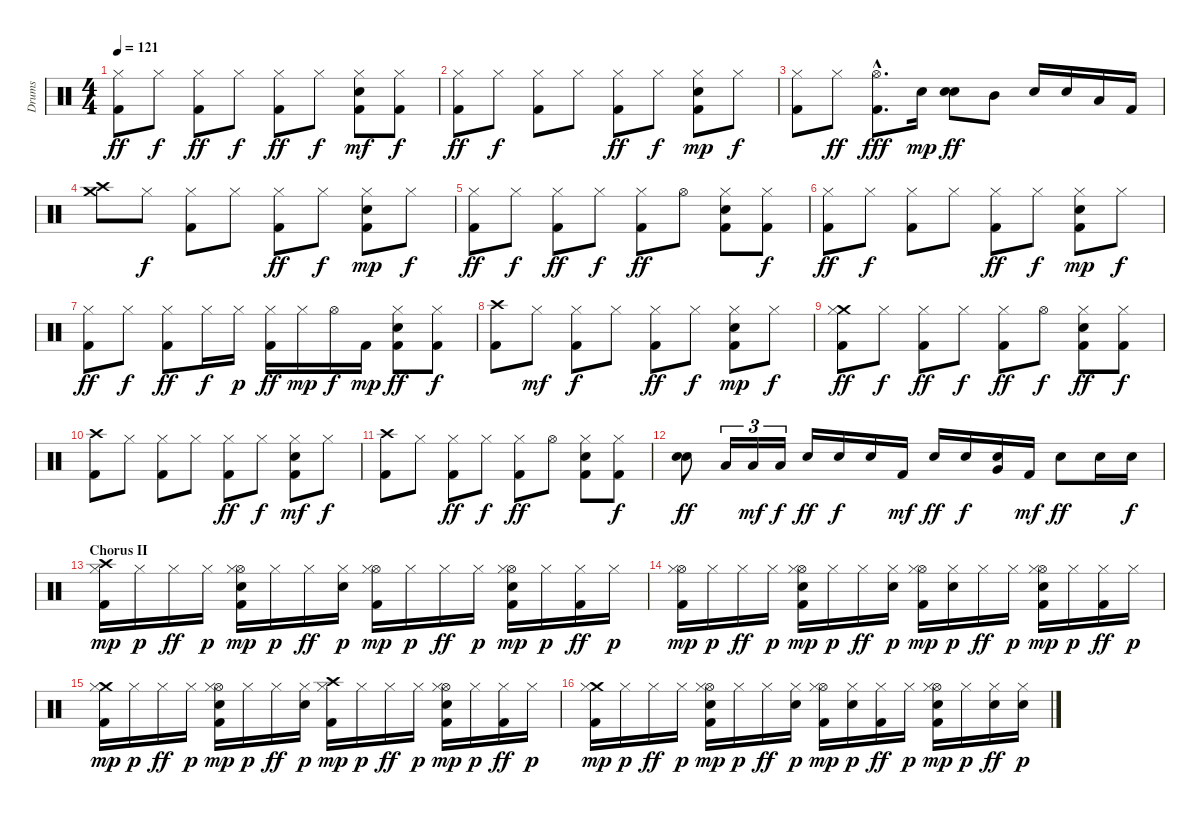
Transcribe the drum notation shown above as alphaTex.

\track ("Drums" "Drums") {instrument percussion}
\staff {score}
\articulation defaults
\ts (4 4)
\tempo 121
\clef neutral
\ks c
("Kick (hit) 2" "Hi-Hat (closed)").8{dy ff} "Hi-Hat (closed)".8{dy f} ("Kick (hit) 2" "Hi-Hat (closed)").8{dy ff} "Hi-Hat (closed)".8{dy f} ("Kick (hit) 2" "Hi-Hat (closed)").8{dy ff} "Hi-Hat (closed)".8{dy f} ("Kick (hit) 2" "Hi-Hat (closed)" "Electric Snare (hit)").8{dy mf} ("Kick (hit) 2" "Hi-Hat (closed)").8{dy f} |
("Kick (hit) 2" "Hi-Hat (closed)").8{dy ff} "Hi-Hat (closed)".8{dy f} ("Kick (hit) 2" "Hi-Hat (closed)").8 "Hi-Hat (closed)".8 ("Kick (hit) 2" "Hi-Hat (closed)").8{dy ff} "Hi-Hat (closed)".8{dy f} ("Kick (hit) 2" "Hi-Hat (closed)" "Electric Snare (hit)").8{dy mp} "Hi-Hat (closed)".8{dy f} |
("Kick (hit) 2" "Hi-Hat (closed)").8 "Hi-Hat (closed)".8{dy ff} ("Kick (hit) 2"{hac} "Hi-Hat (open)"{hac}).8{d dy fff} "Electric Snare (hit)".16{dy mp} ("Electric Snare (hit)" "Snare (hit) 2").8{dy ff} "Mid Tom (hit)".8 "Snare (hit) 2".16 "Electric Snare (hit)".16 "Low Tom (hit)".16 "Kick (hit) 2".16 |
("Crash high (hit)" "Crash medium (hit)").8 "Hi-Hat (closed)".8{dy f} ("Kick (hit) 2" "Hi-Hat (closed)").8 "Hi-Hat (closed)".8 ("Kick (hit) 2" "Hi-Hat (closed)").8{dy ff} "Hi-Hat (closed)".8{dy f} ("Kick (hit) 2" "Hi-Hat (closed)" "Electric Snare (hit)").8{dy mp} "Hi-Hat (closed)".8{dy f} |
("Kick (hit) 2" "Hi-Hat (closed)").8{dy ff} "Hi-Hat (closed)".8{dy f} ("Kick (hit) 2" "Hi-Hat (closed)").8{dy ff} "Hi-Hat (closed)".8{dy f} ("Kick (hit) 2" "Hi-Hat (closed)").8{dy ff} "Hi-Hat (open)".8 ("Kick (hit) 2" "Hi-Hat (closed)" "Electric Snare (hit)").8 ("Kick (hit) 2" "Hi-Hat (closed)").8{dy f} |
("Kick (hit) 2" "Hi-Hat (closed)").8{dy ff} "Hi-Hat (closed)".8{dy f} ("Kick (hit) 2" "Hi-Hat (closed)").8 "Hi-Hat (closed)".8 ("Kick (hit) 2" "Hi-Hat (closed)").8{dy ff} "Hi-Hat (closed)".8{dy f} ("Kick (hit) 2" "Hi-Hat (closed)" "Electric Snare (hit)").8{dy mp} "Hi-Hat (closed)".8{dy f} |
("Kick (hit) 2" "Hi-Hat (closed)").8{dy ff} "Hi-Hat (closed)".8{dy f} ("Kick (hit) 2" "Hi-Hat (closed)").8{dy ff} "Hi-Hat (closed)".16{dy f} "Hi-Hat (closed)".16{dy p} ("Kick (hit) 2" "Hi-Hat (closed)").16{dy ff} "Hi-Hat (closed)".16{dy mp} "Hi-Hat (open)".16{dy f} "Kick (hit) 2".16{dy mp} ("Kick (hit) 2" "Hi-Hat (closed)" "Electric Snare (hit)").8{dy ff} ("Kick (hit) 2" "Hi-Hat (closed)").8{dy f} |
("Crash high (hit)" "Kick (hit) 2").8 "Hi-Hat (closed)".8{dy mf} ("Kick (hit) 2" "Hi-Hat (closed)").8{dy f} "Hi-Hat (closed)".8 ("Kick (hit) 2" "Hi-Hat (closed)").8{dy ff} "Hi-Hat (closed)".8{dy f} ("Kick (hit) 2" "Hi-Hat (closed)" "Electric Snare (hit)").8{dy mp} "Hi-Hat (closed)".8{dy f} |
("Crash medium (hit)" "Kick (hit) 2" "Hi-Hat (closed)").8{dy ff} "Hi-Hat (closed)".8{dy f} ("Kick (hit) 2" "Hi-Hat (closed)").8{dy ff} "Hi-Hat (closed)".8{dy f} ("Kick (hit) 2" "Hi-Hat (closed)").8{dy ff} "Hi-Hat (open)".8{dy f} ("Kick (hit) 2" "Hi-Hat (closed)" "Electric Snare (hit)").8{dy ff} ("Kick (hit) 2" "Hi-Hat (closed)").8{dy f} |
("Crash high (hit)" "Kick (hit) 2").8 "Hi-Hat (closed)".8 ("Kick (hit) 2" "Hi-Hat (closed)").8 "Hi-Hat (closed)".8 ("Kick (hit) 2" "Hi-Hat (closed)").8{dy ff} "Hi-Hat (closed)".8{dy f} ("Kick (hit) 2" "Hi-Hat (closed)" "Electric Snare (hit)").8{dy mf} "Hi-Hat (closed)".8{dy f} |
("Crash high (hit)" "Kick (hit) 2").8 "Hi-Hat (closed)".8 ("Kick (hit) 2" "Hi-Hat (closed)").8{dy ff} "Hi-Hat (closed)".8{dy f} ("Kick (hit) 2" "Hi-Hat (closed)").8{dy ff} "Hi-Hat (open)".8 ("Kick (hit) 2" "Hi-Hat (closed)" "Electric Snare (hit)").8 ("Kick (hit) 2" "Hi-Hat (closed)").8{dy f} |
("Electric Snare (hit)" "Snare (hit) 2").8{dy ff} "Low Tom (hit)".16{tu (3 2)} "Low Tom (hit)".16{tu (3 2) dy mf} "Low Tom (hit)".16{tu (3 2) dy f} "Snare (hit) 2".16{dy ff} "Snare (hit) 2".16{dy f} "Snare (hit) 2".16 "Kick (hit) 2".16{dy mf} "Snare (hit) 2".16{dy ff} "Electric Snare (hit)".16{dy f} ("Very Low Tom (hit)" "Snare (hit) 2").16 "Kick (hit) 2".16{dy mf} "Snare (hit) 2".8{dy ff} "Snare (hit) 2".16 "Snare (hit) 2".16{dy f} |
\section ("" "Chorus II")
("Crash high (hit)" "Kick (hit) 2" "Hi-Hat (closed)").16{dy mp} "Hi-Hat (closed)".16{dy p} "Hi-Hat (closed)".16{dy ff} "Hi-Hat (closed)".16{dy p} ("Kick (hit) 2" "Hi-Hat (open)" "Electric Snare (hit)" "Hi-Hat (closed)").16{dy mp} "Hi-Hat (closed)".16{dy p} "Hi-Hat (closed)".16{dy ff} ("Electric Snare (hit)" "Hi-Hat (closed)").16{dy p} ("Kick (hit) 2" "Hi-Hat (open)" "Hi-Hat (closed)").16{dy mp} "Hi-Hat (closed)".16{dy p} "Hi-Hat (closed)".16{dy ff} "Hi-Hat (closed)".16{dy p} ("Kick (hit) 2" "Hi-Hat (open)" "Electric Snare (hit)" "Hi-Hat (closed)").16{dy mp} "Hi-Hat (closed)".16{dy p} ("Kick (hit) 2" "Hi-Hat (closed)").16{dy ff} "Hi-Hat (closed)".16{dy p} |
("Kick (hit) 2" "Hi-Hat (open)" "Hi-Hat (closed)").16{dy mp} "Hi-Hat (closed)".16{dy p} "Hi-Hat (closed)".16{dy ff} "Hi-Hat (closed)".16{dy p} ("Kick (hit) 2" "Hi-Hat (open)" "Electric Snare (hit)" "Hi-Hat (closed)").16{dy mp} "Hi-Hat (closed)".16{dy p} "Hi-Hat (closed)".16{dy ff} ("Electric Snare (hit)" "Hi-Hat (closed)").16{dy p} ("Kick (hit) 2" "Hi-Hat (open)" "Hi-Hat (closed)").16{dy mp} ("Electric Snare (hit)" "Hi-Hat (closed)").16{dy p} "Hi-Hat (closed)".16{dy ff} "Hi-Hat (closed)".16{dy p} ("Kick (hit) 2" "Hi-Hat (open)" "Electric Snare (hit)" "Hi-Hat (closed)").16{dy mp} "Hi-Hat (closed)".16{dy p} ("Kick (hit) 2" "Hi-Hat (closed)").16{dy ff} "Hi-Hat (closed)".16{dy p} |
("Kick (hit) 2" "Crash medium (hit)" "Hi-Hat (closed)").16{dy mp} "Hi-Hat (closed)".16{dy p} "Hi-Hat (closed)".16{dy ff} "Hi-Hat (closed)".16{dy p} ("Kick (hit) 2" "Hi-Hat (open)" "Electric Snare (hit)" "Hi-Hat (closed)").16{dy mp} "Hi-Hat (closed)".16{dy p} "Hi-Hat (closed)".16{dy ff} ("Electric Snare (hit)" "Hi-Hat (closed)").16{dy p} ("Crash high (hit)" "Kick (hit) 2" "Hi-Hat (closed)").16{dy mp} "Hi-Hat (closed)".16{dy p} "Hi-Hat (closed)".16{dy ff} "Hi-Hat (closed)".16{dy p} ("Kick (hit) 2" "Hi-Hat (open)" "Electric Snare (hit)" "Hi-Hat (closed)").16{dy mp} "Hi-Hat (closed)".16{dy p} ("Kick (hit) 2" "Hi-Hat (closed)").16{dy ff} "Hi-Hat (closed)".16{dy p} |
("Kick (hit) 2" "Crash medium (hit)" "Hi-Hat (closed)").16{dy mp} "Hi-Hat (closed)".16{dy p} "Hi-Hat (closed)".16{dy ff} "Hi-Hat (closed)".16{dy p} ("Hi-Hat (open)" "Kick (hit) 2" "Electric Snare (hit)" "Hi-Hat (closed)").16{dy mp} "Hi-Hat (closed)".16{dy p} "Hi-Hat (closed)".16{dy ff} ("Electric Snare (hit)" "Hi-Hat (closed)").16{dy p} ("Hi-Hat (open)" "Kick (hit) 2" "Hi-Hat (closed)").16{dy mp} ("Electric Snare (hit)" "Hi-Hat (closed)").16{dy p} ("Kick (hit) 2" "Hi-Hat (closed)").16{dy ff} "Hi-Hat (closed)".16{dy p} ("Hi-Hat (open)" "Kick (hit) 2" "Snare (hit) 2" "Hi-Hat (closed)").16{dy mp} "Hi-Hat (closed)".16{dy p} ("Snare (hit) 2" "Hi-Hat (closed)").16{dy ff} ("Electric Snare (hit)" "Hi-Hat (closed)").16{dy p}
